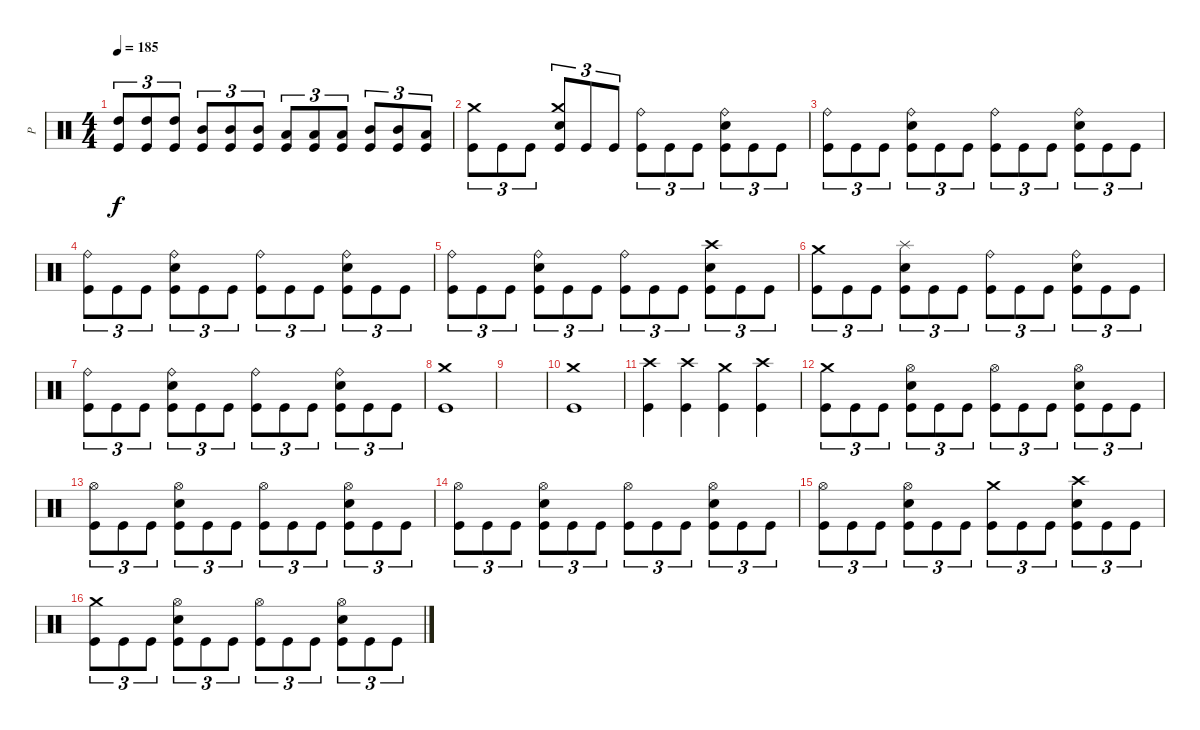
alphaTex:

\track ("P" "P") {instrument percussion}
\staff {score}
\articulation defaults
\ts (4 4)
\tempo 185
\clef neutral
\ks c
("High Tom (hit)" "Kick (hit)").8{tu (3 2) dy f} ("High Tom (hit)" "Kick (hit)").8{tu (3 2)} ("High Tom (hit)" "Kick (hit)").8{tu (3 2)} ("Mid Tom (hit)" "Kick (hit)").8{tu (3 2)} ("Mid Tom (hit)" "Kick (hit)").8{tu (3 2)} ("Mid Tom (hit)" "Kick (hit)").8{tu (3 2)} ("Low Tom (hit)" "Kick (hit)").8{tu (3 2)} ("Low Tom (hit)" "Kick (hit)").8{tu (3 2)} ("Low Tom (hit)" "Kick (hit)").8{tu (3 2)} ("Mid Tom (hit)" "Kick (hit)").8{tu (3 2)} ("Mid Tom (hit)" "Kick (hit)").8{tu (3 2)} ("Low Tom (hit)" "Kick (hit)").8{tu (3 2)} |
("Crash medium (hit)" "Kick (hit)").8{tu (3 2)} "Kick (hit)".8{tu (3 2)} "Kick (hit)".8{tu (3 2)} ("Crash medium (hit)" "Electric Snare (hit)" "Kick (hit)").8{tu (3 2)} "Kick (hit)".8{tu (3 2)} "Kick (hit)".8{tu (3 2)} ("Ride (bell)" "Kick (hit)").8{tu (3 2)} "Kick (hit)".8{tu (3 2)} "Kick (hit)".8{tu (3 2)} ("Ride (bell)" "Electric Snare (hit)" "Kick (hit)").8{tu (3 2)} "Kick (hit)".8{tu (3 2)} "Kick (hit)".8{tu (3 2)} |
("Ride (bell)" "Kick (hit)").8{tu (3 2)} "Kick (hit)".8{tu (3 2)} "Kick (hit)".8{tu (3 2)} ("Ride (bell)" "Electric Snare (hit)" "Kick (hit)").8{tu (3 2)} "Kick (hit)".8{tu (3 2)} "Kick (hit)".8{tu (3 2)} ("Ride (bell)" "Kick (hit)").8{tu (3 2)} "Kick (hit)".8{tu (3 2)} "Kick (hit)".8{tu (3 2)} ("Ride (bell)" "Electric Snare (hit)" "Kick (hit)").8{tu (3 2)} "Kick (hit)".8{tu (3 2)} "Kick (hit)".8{tu (3 2)} |
("Ride (bell)" "Kick (hit)").8{tu (3 2)} "Kick (hit)".8{tu (3 2)} "Kick (hit)".8{tu (3 2)} ("Ride (bell)" "Electric Snare (hit)" "Kick (hit)").8{tu (3 2)} "Kick (hit)".8{tu (3 2)} "Kick (hit)".8{tu (3 2)} ("Ride (bell)" "Kick (hit)").8{tu (3 2)} "Kick (hit)".8{tu (3 2)} "Kick (hit)".8{tu (3 2)} ("Ride (bell)" "Electric Snare (hit)" "Kick (hit)").8{tu (3 2)} "Kick (hit)".8{tu (3 2)} "Kick (hit)".8{tu (3 2)} |
("Ride (bell)" "Kick (hit)").8{tu (3 2)} "Kick (hit)".8{tu (3 2)} "Kick (hit)".8{tu (3 2)} ("Ride (bell)" "Electric Snare (hit)" "Kick (hit)").8{tu (3 2)} "Kick (hit)".8{tu (3 2)} "Kick (hit)".8{tu (3 2)} ("Ride (bell)" "Kick (hit)").8{tu (3 2)} "Kick (hit)".8{tu (3 2)} "Kick (hit)".8{tu (3 2)} ("Crash high (hit)" "Electric Snare (hit)" "Kick (hit)").8{tu (3 2)} "Kick (hit)".8{tu (3 2)} "Kick (hit)".8{tu (3 2)} |
("Crash medium (hit)" "Kick (hit)").8{tu (3 2)} "Kick (hit)".8{tu (3 2)} "Kick (hit)".8{tu (3 2)} ("Splash (hit)" "Electric Snare (hit)" "Kick (hit)").8{tu (3 2)} "Kick (hit)".8{tu (3 2)} "Kick (hit)".8{tu (3 2)} ("Ride (bell)" "Kick (hit)").8{tu (3 2)} "Kick (hit)".8{tu (3 2)} "Kick (hit)".8{tu (3 2)} ("Ride (bell)" "Electric Snare (hit)" "Kick (hit)").8{tu (3 2)} "Kick (hit)".8{tu (3 2)} "Kick (hit)".8{tu (3 2)} |
("Ride (bell)" "Kick (hit)").8{tu (3 2)} "Kick (hit)".8{tu (3 2)} "Kick (hit)".8{tu (3 2)} ("Ride (bell)" "Electric Snare (hit)" "Kick (hit)").8{tu (3 2)} "Kick (hit)".8{tu (3 2)} "Kick (hit)".8{tu (3 2)} ("Ride (bell)" "Kick (hit)").8{tu (3 2)} "Kick (hit)".8{tu (3 2)} "Kick (hit)".8{tu (3 2)} ("Ride (bell)" "Electric Snare (hit)" "Kick (hit)").8{tu (3 2)} "Kick (hit)".8{tu (3 2)} "Kick (hit)".8{tu (3 2)} |
("Crash medium (hit)" "Kick (hit)").1 |
|
("Crash medium (hit)" "Kick (hit)").1 |
("Crash high (hit)" "Kick (hit)").4 ("Crash high (hit)" "Kick (hit)").4 ("Crash medium (hit)" "Kick (hit)").4 ("Crash high (hit)" "Kick (hit)").4 |
("Crash medium (hit)" "Kick (hit)").8{tu (3 2)} "Kick (hit)".8{tu (3 2)} "Kick (hit)".8{tu (3 2)} ("Hi-Hat (open)" "Electric Snare (hit)" "Kick (hit)").8{tu (3 2)} "Kick (hit)".8{tu (3 2)} "Kick (hit)".8{tu (3 2)} ("Hi-Hat (open)" "Kick (hit)").8{tu (3 2)} "Kick (hit)".8{tu (3 2)} "Kick (hit)".8{tu (3 2)} ("Hi-Hat (open)" "Electric Snare (hit)" "Kick (hit)").8{tu (3 2)} "Kick (hit)".8{tu (3 2)} "Kick (hit)".8{tu (3 2)} |
("Hi-Hat (open)" "Kick (hit)").8{tu (3 2)} "Kick (hit)".8{tu (3 2)} "Kick (hit)".8{tu (3 2)} ("Hi-Hat (open)" "Electric Snare (hit)" "Kick (hit)").8{tu (3 2)} "Kick (hit)".8{tu (3 2)} "Kick (hit)".8{tu (3 2)} ("Hi-Hat (open)" "Kick (hit)").8{tu (3 2)} "Kick (hit)".8{tu (3 2)} "Kick (hit)".8{tu (3 2)} ("Hi-Hat (open)" "Electric Snare (hit)" "Kick (hit)").8{tu (3 2)} "Kick (hit)".8{tu (3 2)} "Kick (hit)".8{tu (3 2)} |
("Hi-Hat (open)" "Kick (hit)").8{tu (3 2)} "Kick (hit)".8{tu (3 2)} "Kick (hit)".8{tu (3 2)} ("Hi-Hat (open)" "Electric Snare (hit)" "Kick (hit)").8{tu (3 2)} "Kick (hit)".8{tu (3 2)} "Kick (hit)".8{tu (3 2)} ("Hi-Hat (open)" "Kick (hit)").8{tu (3 2)} "Kick (hit)".8{tu (3 2)} "Kick (hit)".8{tu (3 2)} ("Hi-Hat (open)" "Electric Snare (hit)" "Kick (hit)").8{tu (3 2)} "Kick (hit)".8{tu (3 2)} "Kick (hit)".8{tu (3 2)} |
("Hi-Hat (open)" "Kick (hit)").8{tu (3 2)} "Kick (hit)".8{tu (3 2)} "Kick (hit)".8{tu (3 2)} ("Hi-Hat (open)" "Electric Snare (hit)" "Kick (hit)").8{tu (3 2)} "Kick (hit)".8{tu (3 2)} "Kick (hit)".8{tu (3 2)} ("Crash medium (hit)" "Kick (hit)").8{tu (3 2)} "Kick (hit)".8{tu (3 2)} "Kick (hit)".8{tu (3 2)} ("Crash high (hit)" "Electric Snare (hit)" "Kick (hit)").8{tu (3 2)} "Kick (hit)".8{tu (3 2)} "Kick (hit)".8{tu (3 2)} |
("Crash medium (hit)" "Kick (hit)").8{tu (3 2)} "Kick (hit)".8{tu (3 2)} "Kick (hit)".8{tu (3 2)} ("Hi-Hat (open)" "Electric Snare (hit)" "Kick (hit)").8{tu (3 2)} "Kick (hit)".8{tu (3 2)} "Kick (hit)".8{tu (3 2)} ("Hi-Hat (open)" "Kick (hit)").8{tu (3 2)} "Kick (hit)".8{tu (3 2)} "Kick (hit)".8{tu (3 2)} ("Hi-Hat (open)" "Electric Snare (hit)" "Kick (hit)").8{tu (3 2)} "Kick (hit)".8{tu (3 2)} "Kick (hit)".8{tu (3 2)}
